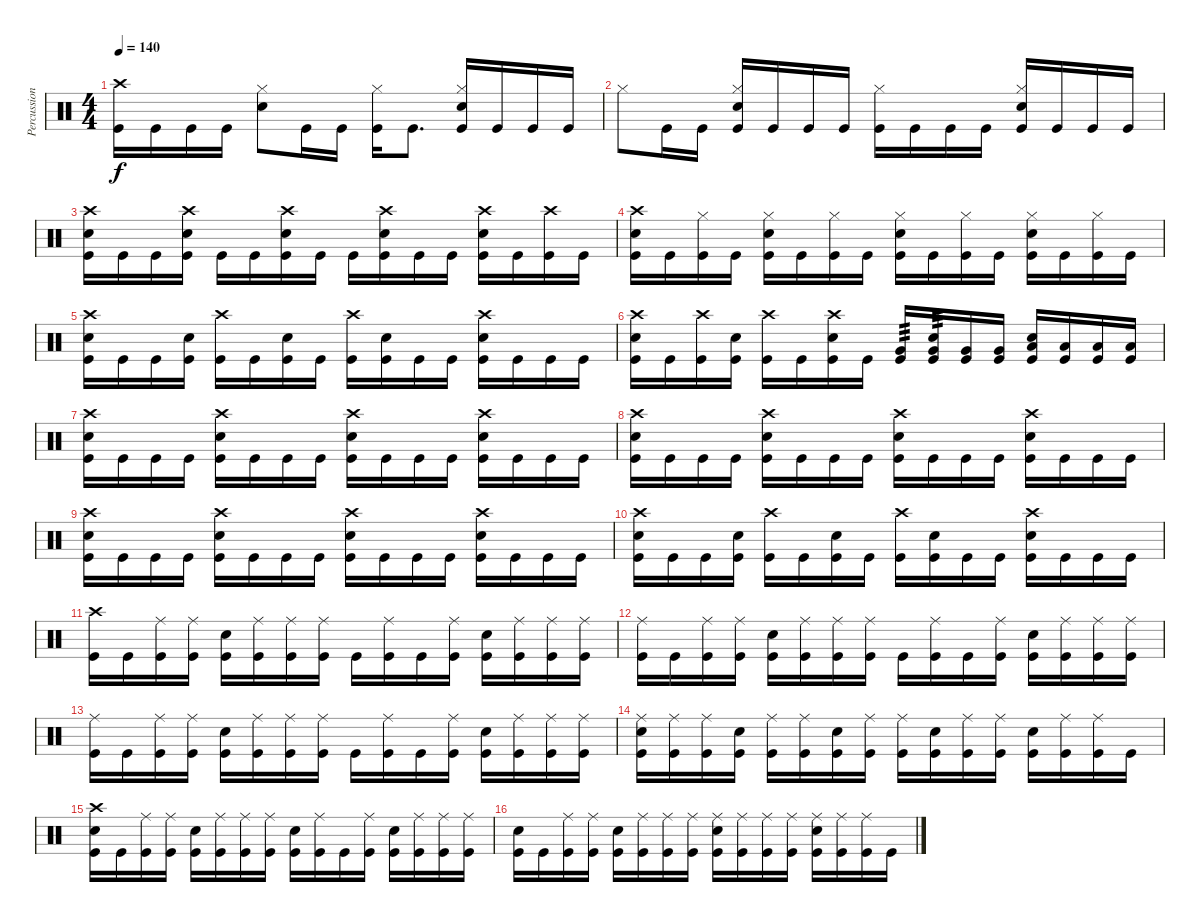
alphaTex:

\track ("Percussion" "Percussion") {instrument percussion}
\staff {score}
\articulation defaults
\ts (4 4)
\tempo 140
\clef neutral
\ks c
("Crash high (hit)" "Kick (hit)").16{dy f} "Kick (hit)".16 "Kick (hit)".16 "Kick (hit)".16 ("Hi-Hat (closed)" "Electric Snare (hit)").8 "Kick (hit)".16 "Kick (hit)".16 ("Hi-Hat (closed)" "Kick (hit)").16 "Kick (hit)".8{d} ("Hi-Hat (closed)" "Electric Snare (hit)" "Kick (hit)").16 "Kick (hit)".16 "Kick (hit)".16 "Kick (hit)".16 |
"Hi-Hat (closed)".8 "Kick (hit)".16 "Kick (hit)".16 ("Hi-Hat (closed)" "Electric Snare (hit)" "Kick (hit)").16 "Kick (hit)".16 "Kick (hit)".16 "Kick (hit)".16 ("Hi-Hat (closed)" "Kick (hit)").16 "Kick (hit)".16 "Kick (hit)".16 "Kick (hit)".16 ("Hi-Hat (closed)" "Electric Snare (hit)" "Kick (hit)").16 "Kick (hit)".16 "Kick (hit)".16 "Kick (hit)".16 |
("Crash high (hit)" "Electric Snare (hit)" "Kick (hit)").16 "Kick (hit)".16 "Kick (hit)".16 ("Crash high (hit)" "Electric Snare (hit)" "Kick (hit)").16 "Kick (hit)".16 "Kick (hit)".16 ("Crash high (hit)" "Electric Snare (hit)" "Kick (hit)").16 "Kick (hit)".16 "Kick (hit)".16 ("Crash high (hit)" "Electric Snare (hit)" "Kick (hit)").16 "Kick (hit)".16 "Kick (hit)".16 ("Crash high (hit)" "Electric Snare (hit)" "Kick (hit)").16 "Kick (hit)".16 ("Crash high (hit)" "Kick (hit)").16 "Kick (hit)".16 |
("Crash high (hit)" "Electric Snare (hit)" "Kick (hit)").16 "Kick (hit)".16 ("Hi-Hat (closed)" "Kick (hit)").16 "Kick (hit)".16 ("Hi-Hat (closed)" "Electric Snare (hit)" "Kick (hit)").16 "Kick (hit)".16 ("Hi-Hat (closed)" "Kick (hit)").16 "Kick (hit)".16 ("Hi-Hat (closed)" "Electric Snare (hit)" "Kick (hit)").16 "Kick (hit)".16 ("Hi-Hat (closed)" "Kick (hit)").16 "Kick (hit)".16 ("Hi-Hat (closed)" "Electric Snare (hit)" "Kick (hit)").16 "Kick (hit)".16 ("Hi-Hat (closed)" "Kick (hit)").16 "Kick (hit)".16 |
("Crash high (hit)" "Electric Snare (hit)" "Kick (hit)").16 "Kick (hit)".16 "Kick (hit)".16 ("Electric Snare (hit)" "Kick (hit)").16 ("Crash high (hit)" "Kick (hit)").16 "Kick (hit)".16 ("Electric Snare (hit)" "Kick (hit)").16 "Kick (hit)".16 ("Crash high (hit)" "Kick (hit)").16 ("Electric Snare (hit)" "Kick (hit)").16 "Kick (hit)".16 "Kick (hit)".16 ("Crash high (hit)" "Electric Snare (hit)" "Kick (hit)").16 "Kick (hit)".16 "Kick (hit)".16 "Kick (hit)".16 |
("Crash high (hit)" "Electric Snare (hit)" "Kick (hit)").16 "Kick (hit)".16 ("Crash high (hit)" "Kick (hit)").16 ("Electric Snare (hit)" "Kick (hit)").16 ("Crash high (hit)" "Kick (hit)").16 "Kick (hit)".16 ("Crash high (hit)" "Electric Snare (hit)" "Kick (hit)").16 "Kick (hit)".16 ("Very Low Tom (hit)" "Kick (hit)").16{tp 3} ("Electric Snare (hit)" "Very Low Tom (hit)" "Kick (hit)").16{tp 3} ("Very Low Tom (hit)" "Kick (hit)").16 ("Very Low Tom (hit)" "Kick (hit)").16 ("Electric Snare (hit)" "Low Floor Tom (hit)" "Kick (hit)").16 ("Low Floor Tom (hit)" "Kick (hit)").16 ("Low Floor Tom (hit)" "Kick (hit)").16 ("Low Floor Tom (hit)" "Kick (hit)").16 |
("Crash high (hit)" "Electric Snare (hit)" "Kick (hit)").16 "Kick (hit)".16 "Kick (hit)".16 "Kick (hit)".16 ("Crash high (hit)" "Electric Snare (hit)" "Kick (hit)").16 "Kick (hit)".16 "Kick (hit)".16 "Kick (hit)".16 ("Crash high (hit)" "Electric Snare (hit)" "Kick (hit)").16 "Kick (hit)".16 "Kick (hit)".16 "Kick (hit)".16 ("Crash high (hit)" "Electric Snare (hit)" "Kick (hit)").16 "Kick (hit)".16 "Kick (hit)".16 "Kick (hit)".16 |
("Crash high (hit)" "Electric Snare (hit)" "Kick (hit)").16 "Kick (hit)".16 "Kick (hit)".16 "Kick (hit)".16 ("Crash high (hit)" "Electric Snare (hit)" "Kick (hit)").16 "Kick (hit)".16 "Kick (hit)".16 "Kick (hit)".16 ("Crash high (hit)" "Electric Snare (hit)" "Kick (hit)").16 "Kick (hit)".16 "Kick (hit)".16 "Kick (hit)".16 ("Crash high (hit)" "Electric Snare (hit)" "Kick (hit)").16 "Kick (hit)".16 "Kick (hit)".16 "Kick (hit)".16 |
("Crash high (hit)" "Electric Snare (hit)" "Kick (hit)").16 "Kick (hit)".16 "Kick (hit)".16 "Kick (hit)".16 ("Crash high (hit)" "Electric Snare (hit)" "Kick (hit)").16 "Kick (hit)".16 "Kick (hit)".16 "Kick (hit)".16 ("Crash high (hit)" "Electric Snare (hit)" "Kick (hit)").16 "Kick (hit)".16 "Kick (hit)".16 "Kick (hit)".16 ("Crash high (hit)" "Electric Snare (hit)" "Kick (hit)").16 "Kick (hit)".16 "Kick (hit)".16 "Kick (hit)".16 |
("Crash high (hit)" "Electric Snare (hit)" "Kick (hit)").16 "Kick (hit)".16 "Kick (hit)".16 ("Electric Snare (hit)" "Kick (hit)").16 ("Crash high (hit)" "Kick (hit)").16 "Kick (hit)".16 ("Electric Snare (hit)" "Kick (hit)").16 "Kick (hit)".16 ("Crash high (hit)" "Kick (hit)").16 ("Electric Snare (hit)" "Kick (hit)").16 "Kick (hit)".16 "Kick (hit)".16 ("Crash high (hit)" "Electric Snare (hit)" "Kick (hit)").16 "Kick (hit)".16 "Kick (hit)".16 "Kick (hit)".16 |
("Crash high (hit)" "Kick (hit)").16 "Kick (hit)".16 ("Ride (middle)" "Kick (hit)").16 ("Ride (middle)" "Kick (hit)").16 ("Electric Snare (hit)" "Kick (hit)").16 ("Ride (middle)" "Kick (hit)").16 ("Ride (middle)" "Kick (hit)").16 ("Ride (middle)" "Kick (hit)").16 "Kick (hit)".16 ("Ride (middle)" "Kick (hit)").16 "Kick (hit)".16 ("Ride (middle)" "Kick (hit)").16 ("Electric Snare (hit)" "Kick (hit)").16 ("Ride (middle)" "Kick (hit)").16 ("Ride (middle)" "Kick (hit)").16 ("Ride (middle)" "Kick (hit)").16 |
("Ride (middle)" "Kick (hit)").16 "Kick (hit)".16 ("Ride (middle)" "Kick (hit)").16 ("Ride (middle)" "Kick (hit)").16 ("Electric Snare (hit)" "Kick (hit)").16 ("Ride (middle)" "Kick (hit)").16 ("Ride (middle)" "Kick (hit)").16 ("Ride (middle)" "Kick (hit)").16 "Kick (hit)".16 ("Ride (middle)" "Kick (hit)").16 "Kick (hit)".16 ("Ride (middle)" "Kick (hit)").16 ("Electric Snare (hit)" "Kick (hit)").16 ("Ride (middle)" "Kick (hit)").16 ("Ride (middle)" "Kick (hit)").16 ("Ride (middle)" "Kick (hit)").16 |
("Ride (middle)" "Kick (hit)").16 "Kick (hit)".16 ("Ride (middle)" "Kick (hit)").16 ("Ride (middle)" "Kick (hit)").16 ("Electric Snare (hit)" "Kick (hit)").16 ("Ride (middle)" "Kick (hit)").16 ("Ride (middle)" "Kick (hit)").16 ("Ride (middle)" "Kick (hit)").16 "Kick (hit)".16 ("Ride (middle)" "Kick (hit)").16 "Kick (hit)".16 ("Ride (middle)" "Kick (hit)").16 ("Electric Snare (hit)" "Kick (hit)").16 ("Ride (middle)" "Kick (hit)").16 ("Ride (middle)" "Kick (hit)").16 ("Ride (middle)" "Kick (hit)").16 |
("Ride (middle)" "Electric Snare (hit)" "Kick (hit)").16 ("Ride (middle)" "Kick (hit)").16 ("Ride (middle)" "Kick (hit)").16 ("Electric Snare (hit)" "Kick (hit)").16 ("Ride (middle)" "Kick (hit)").16 ("Ride (middle)" "Kick (hit)").16 ("Electric Snare (hit)" "Kick (hit)").16 ("Ride (middle)" "Kick (hit)").16 ("Ride (middle)" "Kick (hit)").16 ("Electric Snare (hit)" "Kick (hit)").16 ("Ride (middle)" "Kick (hit)").16 ("Ride (middle)" "Kick (hit)").16 ("Electric Snare (hit)" "Kick (hit)").16 ("Ride (middle)" "Kick (hit)").16 ("Ride (middle)" "Kick (hit)").16 "Kick (hit)".16 |
("Crash high (hit)" "Electric Snare (hit)" "Kick (hit)").16 "Kick (hit)".16 ("Ride (middle)" "Kick (hit)").16 ("Ride (middle)" "Kick (hit)").16 ("Electric Snare (hit)" "Kick (hit)").16 ("Ride (middle)" "Kick (hit)").16 ("Ride (middle)" "Kick (hit)").16 ("Ride (middle)" "Kick (hit)").16 ("Electric Snare (hit)" "Kick (hit)").16 ("Ride (middle)" "Kick (hit)").16 "Kick (hit)".16 ("Ride (middle)" "Kick (hit)").16 ("Electric Snare (hit)" "Kick (hit)").16 ("Ride (middle)" "Kick (hit)").16 ("Ride (middle)" "Kick (hit)").16 ("Ride (middle)" "Kick (hit)").16 |
("Electric Snare (hit)" "Kick (hit)").16 "Kick (hit)".16 ("Ride (middle)" "Kick (hit)").16 ("Ride (middle)" "Kick (hit)").16 ("Electric Snare (hit)" "Kick (hit)").16 ("Ride (middle)" "Kick (hit)").16 ("Ride (middle)" "Kick (hit)").16 ("Ride (middle)" "Kick (hit)").16 ("Ride (middle)" "Electric Snare (hit)" "Kick (hit)").16 ("Ride (middle)" "Kick (hit)").16 ("Ride (middle)" "Kick (hit)").16 ("Ride (middle)" "Kick (hit)").16 ("Ride (middle)" "Electric Snare (hit)" "Kick (hit)").16 ("Ride (middle)" "Kick (hit)").16 ("Ride (middle)" "Kick (hit)").16 "Kick (hit)".16
